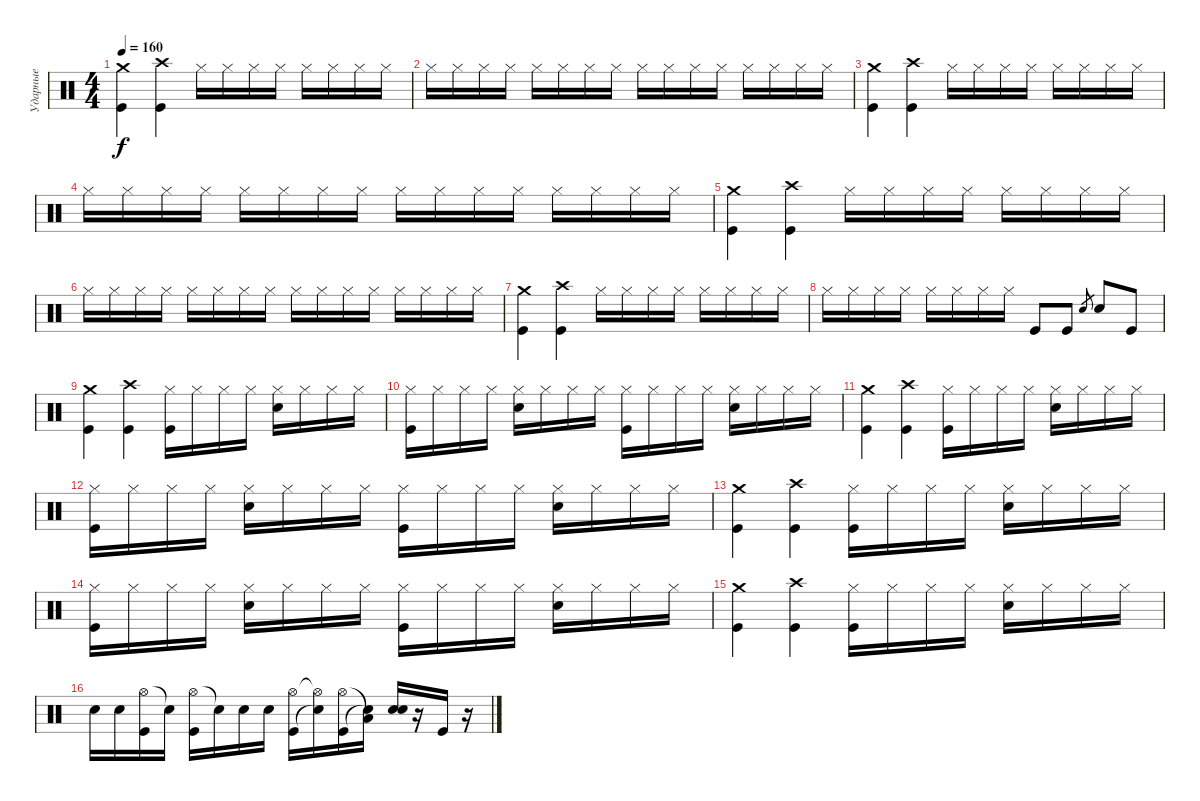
\track ("Ударные" "Ударные") {instrument percussion}
\staff {score}
\articulation defaults
\ts (4 4)
\tempo 160
\clef neutral
\ks c
("Crash medium (hit)" "Kick (hit)").4{dy f} ("Crash high (hit)" "Kick (hit)").4 "Hi-Hat (closed)".16 "Hi-Hat (closed)".16 "Hi-Hat (closed)".16 "Hi-Hat (closed)".16 "Hi-Hat (closed)".16 "Hi-Hat (closed)".16 "Hi-Hat (closed)".16 "Hi-Hat (closed)".16 |
"Hi-Hat (closed)".16 "Hi-Hat (closed)".16 "Hi-Hat (closed)".16 "Hi-Hat (closed)".16 "Hi-Hat (closed)".16 "Hi-Hat (closed)".16 "Hi-Hat (closed)".16 "Hi-Hat (closed)".16 "Hi-Hat (closed)".16 "Hi-Hat (closed)".16 "Hi-Hat (closed)".16 "Hi-Hat (closed)".16 "Hi-Hat (closed)".16 "Hi-Hat (closed)".16 "Hi-Hat (closed)".16 "Hi-Hat (closed)".16 |
("Crash medium (hit)" "Kick (hit)").4 ("Crash high (hit)" "Kick (hit)").4 "Hi-Hat (closed)".16 "Hi-Hat (closed)".16 "Hi-Hat (closed)".16 "Hi-Hat (closed)".16 "Hi-Hat (closed)".16 "Hi-Hat (closed)".16 "Hi-Hat (closed)".16 "Hi-Hat (closed)".16 |
"Hi-Hat (closed)".16 "Hi-Hat (closed)".16 "Hi-Hat (closed)".16 "Hi-Hat (closed)".16 "Hi-Hat (closed)".16 "Hi-Hat (closed)".16 "Hi-Hat (closed)".16 "Hi-Hat (closed)".16 "Hi-Hat (closed)".16 "Hi-Hat (closed)".16 "Hi-Hat (closed)".16 "Hi-Hat (closed)".16 "Hi-Hat (closed)".16 "Hi-Hat (closed)".16 "Hi-Hat (closed)".16 "Hi-Hat (closed)".16 |
("Crash medium (hit)" "Kick (hit)").4 ("Crash high (hit)" "Kick (hit)").4 "Hi-Hat (closed)".16 "Hi-Hat (closed)".16 "Hi-Hat (closed)".16 "Hi-Hat (closed)".16 "Hi-Hat (closed)".16 "Hi-Hat (closed)".16 "Hi-Hat (closed)".16 "Hi-Hat (closed)".16 |
"Hi-Hat (closed)".16 "Hi-Hat (closed)".16 "Hi-Hat (closed)".16 "Hi-Hat (closed)".16 "Hi-Hat (closed)".16 "Hi-Hat (closed)".16 "Hi-Hat (closed)".16 "Hi-Hat (closed)".16 "Hi-Hat (closed)".16 "Hi-Hat (closed)".16 "Hi-Hat (closed)".16 "Hi-Hat (closed)".16 "Hi-Hat (closed)".16 "Hi-Hat (closed)".16 "Hi-Hat (closed)".16 "Hi-Hat (closed)".16 |
("Crash medium (hit)" "Kick (hit)").4 ("Crash high (hit)" "Kick (hit)").4 "Hi-Hat (closed)".16 "Hi-Hat (closed)".16 "Hi-Hat (closed)".16 "Hi-Hat (closed)".16 "Hi-Hat (closed)".16 "Hi-Hat (closed)".16 "Hi-Hat (closed)".16 "Hi-Hat (closed)".16 |
"Hi-Hat (closed)".16 "Hi-Hat (closed)".16 "Hi-Hat (closed)".16 "Hi-Hat (closed)".16 "Hi-Hat (closed)".16 "Hi-Hat (closed)".16 "Hi-Hat (closed)".16 "Hi-Hat (closed)".16 "Kick (hit)".8 "Kick (hit)".8 "Electric Snare (hit)".8{gr} "Electric Snare (hit)".8 "Kick (hit)".8 |
("Crash medium (hit)" "Kick (hit)").4 ("Crash high (hit)" "Kick (hit)").4 ("Hi-Hat (closed)" "Kick (hit)").16 "Hi-Hat (closed)".16 "Hi-Hat (closed)".16 "Hi-Hat (closed)".16 ("Hi-Hat (closed)" "Electric Snare (hit)").16 "Hi-Hat (closed)".16 "Hi-Hat (closed)".16 "Hi-Hat (closed)".16 |
("Hi-Hat (closed)" "Kick (hit)").16 "Hi-Hat (closed)".16 "Hi-Hat (closed)".16 "Hi-Hat (closed)".16 ("Hi-Hat (closed)" "Electric Snare (hit)").16 "Hi-Hat (closed)".16 "Hi-Hat (closed)".16 "Hi-Hat (closed)".16 ("Hi-Hat (closed)" "Kick (hit)").16 "Hi-Hat (closed)".16 "Hi-Hat (closed)".16 "Hi-Hat (closed)".16 ("Hi-Hat (closed)" "Electric Snare (hit)").16 "Hi-Hat (closed)".16 "Hi-Hat (closed)".16 "Hi-Hat (closed)".16 |
("Crash medium (hit)" "Kick (hit)").4 ("Crash high (hit)" "Kick (hit)").4 ("Hi-Hat (closed)" "Kick (hit)").16 "Hi-Hat (closed)".16 "Hi-Hat (closed)".16 "Hi-Hat (closed)".16 ("Hi-Hat (closed)" "Electric Snare (hit)").16 "Hi-Hat (closed)".16 "Hi-Hat (closed)".16 "Hi-Hat (closed)".16 |
("Hi-Hat (closed)" "Kick (hit)").16 "Hi-Hat (closed)".16 "Hi-Hat (closed)".16 "Hi-Hat (closed)".16 ("Hi-Hat (closed)" "Electric Snare (hit)").16 "Hi-Hat (closed)".16 "Hi-Hat (closed)".16 "Hi-Hat (closed)".16 ("Hi-Hat (closed)" "Kick (hit)").16 "Hi-Hat (closed)".16 "Hi-Hat (closed)".16 "Hi-Hat (closed)".16 ("Hi-Hat (closed)" "Electric Snare (hit)").16 "Hi-Hat (closed)".16 "Hi-Hat (closed)".16 "Hi-Hat (closed)".16 |
("Crash medium (hit)" "Kick (hit)").4 ("Crash high (hit)" "Kick (hit)").4 ("Hi-Hat (closed)" "Kick (hit)").16 "Hi-Hat (closed)".16 "Hi-Hat (closed)".16 "Hi-Hat (closed)".16 ("Hi-Hat (closed)" "Electric Snare (hit)").16 "Hi-Hat (closed)".16 "Hi-Hat (closed)".16 "Hi-Hat (closed)".16 |
("Hi-Hat (closed)" "Kick (hit)").16 "Hi-Hat (closed)".16 "Hi-Hat (closed)".16 "Hi-Hat (closed)".16 ("Hi-Hat (closed)" "Electric Snare (hit)").16 "Hi-Hat (closed)".16 "Hi-Hat (closed)".16 "Hi-Hat (closed)".16 ("Hi-Hat (closed)" "Kick (hit)").16 "Hi-Hat (closed)".16 "Hi-Hat (closed)".16 "Hi-Hat (closed)".16 ("Hi-Hat (closed)" "Electric Snare (hit)").16 "Hi-Hat (closed)".16 "Hi-Hat (closed)".16 "Hi-Hat (closed)".16 |
("Crash medium (hit)" "Kick (hit)").4 ("Crash high (hit)" "Kick (hit)").4 ("Hi-Hat (closed)" "Kick (hit)").16 "Hi-Hat (closed)".16 "Hi-Hat (closed)".16 "Hi-Hat (closed)".16 ("Hi-Hat (closed)" "Electric Snare (hit)").16 "Hi-Hat (closed)".16 "Hi-Hat (closed)".16 "Hi-Hat (closed)".16 |
"Electric Snare (hit)".16 "Electric Snare (hit)".16 ("Hi-Hat (open)" "Kick (hit)").16 "Snare (hit)"{t}.16 ("Hi-Hat (open)" "Kick (hit)").16 "Snare (hit)"{t}.16 "Electric Snare (hit)".16 "Electric Snare (hit)".16 ("Hi-Hat (open)" "Kick (hit)").16 ("Hi-Hat (open)"{t} "Snare (hit)"{t}).16 ("Hi-Hat (open)" "Kick (hit)").16 ("Low Tom (hit)"{t} "Snare (hit)"{t}).16 ("Electric Snare (hit)" "Electric Snare (hit)").16 r.16 "Kick (hit)".16 r.16
